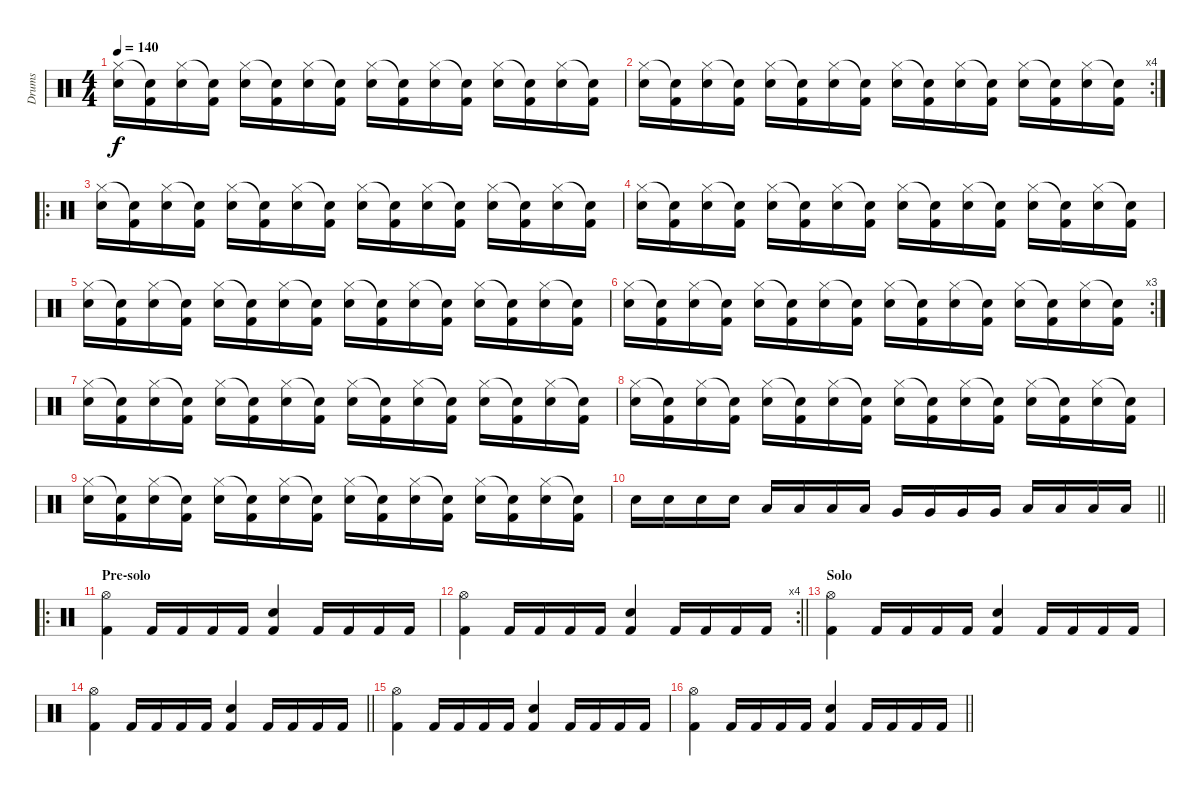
\track ("Drums" "Drums") {instrument percussion}
\staff {score}
\articulation defaults
\ts (4 4)
\tempo 140
\clef neutral
\ks c
("Snare (hit) 2" "Hi-Hat (closed)").16{dy f} ("Kick (hit) 2" "Snare (hit)"{t}).16 ("Snare (hit) 2" "Hi-Hat (closed)").16 ("Kick (hit) 2" "Snare (hit)"{t}).16 ("Snare (hit) 2" "Hi-Hat (closed)").16 ("Kick (hit) 2" "Snare (hit)"{t}).16 ("Snare (hit) 2" "Hi-Hat (closed)").16 ("Kick (hit) 2" "Snare (hit)"{t}).16 ("Snare (hit) 2" "Hi-Hat (closed)").16 ("Kick (hit) 2" "Snare (hit)"{t}).16 ("Snare (hit) 2" "Hi-Hat (closed)").16 ("Kick (hit) 2" "Snare (hit)"{t}).16 ("Snare (hit) 2" "Hi-Hat (closed)").16 ("Kick (hit) 2" "Snare (hit)"{t}).16 ("Snare (hit) 2" "Hi-Hat (closed)").16 ("Kick (hit) 2" "Snare (hit)"{t}).16 |
\rc 4
("Snare (hit) 2" "Hi-Hat (closed)").16 ("Kick (hit) 2" "Snare (hit)"{t}).16 ("Snare (hit) 2" "Hi-Hat (closed)").16 ("Kick (hit) 2" "Snare (hit)"{t}).16 ("Snare (hit) 2" "Hi-Hat (closed)").16 ("Kick (hit) 2" "Snare (hit)"{t}).16 ("Snare (hit) 2" "Hi-Hat (closed)").16 ("Kick (hit) 2" "Snare (hit)"{t}).16 ("Snare (hit) 2" "Hi-Hat (closed)").16 ("Kick (hit) 2" "Snare (hit)"{t}).16 ("Snare (hit) 2" "Hi-Hat (closed)").16 ("Kick (hit) 2" "Snare (hit)"{t}).16 ("Snare (hit) 2" "Hi-Hat (closed)").16 ("Kick (hit) 2" "Snare (hit)"{t}).16 ("Snare (hit) 2" "Hi-Hat (closed)").16 ("Kick (hit) 2" "Snare (hit)"{t}).16 |
\ro
("Snare (hit) 2" "Hi-Hat (closed)").16 ("Kick (hit) 2" "Snare (hit)"{t}).16 ("Snare (hit) 2" "Hi-Hat (closed)").16 ("Kick (hit) 2" "Snare (hit)"{t}).16 ("Snare (hit) 2" "Hi-Hat (closed)").16 ("Kick (hit) 2" "Snare (hit)"{t}).16 ("Snare (hit) 2" "Hi-Hat (closed)").16 ("Kick (hit) 2" "Snare (hit)"{t}).16 ("Snare (hit) 2" "Hi-Hat (closed)").16 ("Kick (hit) 2" "Snare (hit)"{t}).16 ("Snare (hit) 2" "Hi-Hat (closed)").16 ("Kick (hit) 2" "Snare (hit)"{t}).16 ("Snare (hit) 2" "Hi-Hat (closed)").16 ("Kick (hit) 2" "Snare (hit)"{t}).16 ("Snare (hit) 2" "Hi-Hat (closed)").16 ("Kick (hit) 2" "Snare (hit)"{t}).16 |
("Snare (hit) 2" "Hi-Hat (closed)").16 ("Kick (hit) 2" "Snare (hit)"{t}).16 ("Snare (hit) 2" "Hi-Hat (closed)").16 ("Kick (hit) 2" "Snare (hit)"{t}).16 ("Snare (hit) 2" "Hi-Hat (closed)").16 ("Kick (hit) 2" "Snare (hit)"{t}).16 ("Snare (hit) 2" "Hi-Hat (closed)").16 ("Kick (hit) 2" "Snare (hit)"{t}).16 ("Snare (hit) 2" "Hi-Hat (closed)").16 ("Kick (hit) 2" "Snare (hit)"{t}).16 ("Snare (hit) 2" "Hi-Hat (closed)").16 ("Kick (hit) 2" "Snare (hit)"{t}).16 ("Snare (hit) 2" "Hi-Hat (closed)").16 ("Kick (hit) 2" "Snare (hit)"{t}).16 ("Snare (hit) 2" "Hi-Hat (closed)").16 ("Kick (hit) 2" "Snare (hit)"{t}).16 |
("Snare (hit) 2" "Hi-Hat (closed)").16 ("Kick (hit) 2" "Snare (hit)"{t}).16 ("Snare (hit) 2" "Hi-Hat (closed)").16 ("Kick (hit) 2" "Snare (hit)"{t}).16 ("Snare (hit) 2" "Hi-Hat (closed)").16 ("Kick (hit) 2" "Snare (hit)"{t}).16 ("Snare (hit) 2" "Hi-Hat (closed)").16 ("Kick (hit) 2" "Snare (hit)"{t}).16 ("Snare (hit) 2" "Hi-Hat (closed)").16 ("Kick (hit) 2" "Snare (hit)"{t}).16 ("Snare (hit) 2" "Hi-Hat (closed)").16 ("Kick (hit) 2" "Snare (hit)"{t}).16 ("Snare (hit) 2" "Hi-Hat (closed)").16 ("Kick (hit) 2" "Snare (hit)"{t}).16 ("Snare (hit) 2" "Hi-Hat (closed)").16 ("Kick (hit) 2" "Snare (hit)"{t}).16 |
\rc 3
("Snare (hit) 2" "Hi-Hat (closed)").16 ("Kick (hit) 2" "Snare (hit)"{t}).16 ("Snare (hit) 2" "Hi-Hat (closed)").16 ("Kick (hit) 2" "Snare (hit)"{t}).16 ("Snare (hit) 2" "Hi-Hat (closed)").16 ("Kick (hit) 2" "Snare (hit)"{t}).16 ("Snare (hit) 2" "Hi-Hat (closed)").16 ("Kick (hit) 2" "Snare (hit)"{t}).16 ("Snare (hit) 2" "Hi-Hat (closed)").16 ("Kick (hit) 2" "Snare (hit)"{t}).16 ("Snare (hit) 2" "Hi-Hat (closed)").16 ("Kick (hit) 2" "Snare (hit)"{t}).16 ("Snare (hit) 2" "Hi-Hat (closed)").16 ("Kick (hit) 2" "Snare (hit)"{t}).16 ("Snare (hit) 2" "Hi-Hat (closed)").16 ("Kick (hit) 2" "Snare (hit)"{t}).16 |
("Snare (hit) 2" "Hi-Hat (closed)").16 ("Kick (hit) 2" "Snare (hit)"{t}).16 ("Snare (hit) 2" "Hi-Hat (closed)").16 ("Kick (hit) 2" "Snare (hit)"{t}).16 ("Snare (hit) 2" "Hi-Hat (closed)").16 ("Kick (hit) 2" "Snare (hit)"{t}).16 ("Snare (hit) 2" "Hi-Hat (closed)").16 ("Kick (hit) 2" "Snare (hit)"{t}).16 ("Snare (hit) 2" "Hi-Hat (closed)").16 ("Kick (hit) 2" "Snare (hit)"{t}).16 ("Snare (hit) 2" "Hi-Hat (closed)").16 ("Kick (hit) 2" "Snare (hit)"{t}).16 ("Snare (hit) 2" "Hi-Hat (closed)").16 ("Kick (hit) 2" "Snare (hit)"{t}).16 ("Snare (hit) 2" "Hi-Hat (closed)").16 ("Kick (hit) 2" "Snare (hit)"{t}).16 |
("Snare (hit) 2" "Hi-Hat (closed)").16 ("Kick (hit) 2" "Snare (hit)"{t}).16 ("Snare (hit) 2" "Hi-Hat (closed)").16 ("Kick (hit) 2" "Snare (hit)"{t}).16 ("Snare (hit) 2" "Hi-Hat (closed)").16 ("Kick (hit) 2" "Snare (hit)"{t}).16 ("Snare (hit) 2" "Hi-Hat (closed)").16 ("Kick (hit) 2" "Snare (hit)"{t}).16 ("Snare (hit) 2" "Hi-Hat (closed)").16 ("Kick (hit) 2" "Snare (hit)"{t}).16 ("Snare (hit) 2" "Hi-Hat (closed)").16 ("Kick (hit) 2" "Snare (hit)"{t}).16 ("Snare (hit) 2" "Hi-Hat (closed)").16 ("Kick (hit) 2" "Snare (hit)"{t}).16 ("Snare (hit) 2" "Hi-Hat (closed)").16 ("Kick (hit) 2" "Snare (hit)"{t}).16 |
("Snare (hit) 2" "Hi-Hat (closed)").16 ("Kick (hit) 2" "Snare (hit)"{t}).16 ("Snare (hit) 2" "Hi-Hat (closed)").16 ("Kick (hit) 2" "Snare (hit)"{t}).16 ("Snare (hit) 2" "Hi-Hat (closed)").16 ("Kick (hit) 2" "Snare (hit)"{t}).16 ("Snare (hit) 2" "Hi-Hat (closed)").16 ("Kick (hit) 2" "Snare (hit)"{t}).16 ("Snare (hit) 2" "Hi-Hat (closed)").16 ("Kick (hit) 2" "Snare (hit)"{t}).16 ("Snare (hit) 2" "Hi-Hat (closed)").16 ("Kick (hit) 2" "Snare (hit)"{t}).16 ("Snare (hit) 2" "Hi-Hat (closed)").16 ("Kick (hit) 2" "Snare (hit)"{t}).16 ("Snare (hit) 2" "Hi-Hat (closed)").16 ("Kick (hit) 2" "Snare (hit)"{t}).16 |
\barLineRight lightlight "Snare (hit) 2".16 "Snare (hit) 2".16 "Snare (hit) 2".16 "Snare (hit) 2".16 "Low Tom (hit)".16 "Low Tom (hit)".16 "Low Tom (hit)".16 "Low Tom (hit)".16 "Very Low Tom (hit)".16 "Very Low Tom (hit)".16 "Very Low Tom (hit)".16 "Very Low Tom (hit)".16 "Low Floor Tom (hit)".16 "Low Floor Tom (hit)".16 "Low Floor Tom (hit)".16 "Low Floor Tom (hit)".16
|
\ro
\section ("" "Pre-solo")
("Hi-Hat (open)" "Kick (hit) 2").4 "Kick (hit) 2".16 "Kick (hit) 2".16 "Kick (hit) 2".16 "Kick (hit) 2".16 ("Snare (hit) 2" "Kick (hit) 2").4 "Kick (hit) 2".16 "Kick (hit) 2".16 "Kick (hit) 2".16 "Kick (hit) 2".16 |
\rc 4
\barLineRight lightlight
("Hi-Hat (open)" "Kick (hit) 2").4 "Kick (hit) 2".16 "Kick (hit) 2".16 "Kick (hit) 2".16 "Kick (hit) 2".16 ("Snare (hit) 2" "Kick (hit) 2").4 "Kick (hit) 2".16 "Kick (hit) 2".16 "Kick (hit) 2".16 "Kick (hit) 2".16 |
\section ("" "Solo")
("Hi-Hat (open)" "Kick (hit) 2").4 "Kick (hit) 2".16 "Kick (hit) 2".16 "Kick (hit) 2".16 "Kick (hit) 2".16 ("Snare (hit) 2" "Kick (hit) 2").4 "Kick (hit) 2".16 "Kick (hit) 2".16 "Kick (hit) 2".16 "Kick (hit) 2".16 |
\barLineRight lightlight
("Hi-Hat (open)" "Kick (hit) 2").4 "Kick (hit) 2".16 "Kick (hit) 2".16 "Kick (hit) 2".16 "Kick (hit) 2".16 ("Snare (hit) 2" "Kick (hit) 2").4 "Kick (hit) 2".16 "Kick (hit) 2".16 "Kick (hit) 2".16 "Kick (hit) 2".16 |
("Hi-Hat (open)" "Kick (hit) 2").4 "Kick (hit) 2".16 "Kick (hit) 2".16 "Kick (hit) 2".16 "Kick (hit) 2".16 ("Snare (hit) 2" "Kick (hit) 2").4 "Kick (hit) 2".16 "Kick (hit) 2".16 "Kick (hit) 2".16 "Kick (hit) 2".16 |
\barLineRight lightlight
("Hi-Hat (open)" "Kick (hit) 2").4 "Kick (hit) 2".16 "Kick (hit) 2".16 "Kick (hit) 2".16 "Kick (hit) 2".16 ("Snare (hit) 2" "Kick (hit) 2").4 "Kick (hit) 2".16 "Kick (hit) 2".16 "Kick (hit) 2".16 "Kick (hit) 2".16
